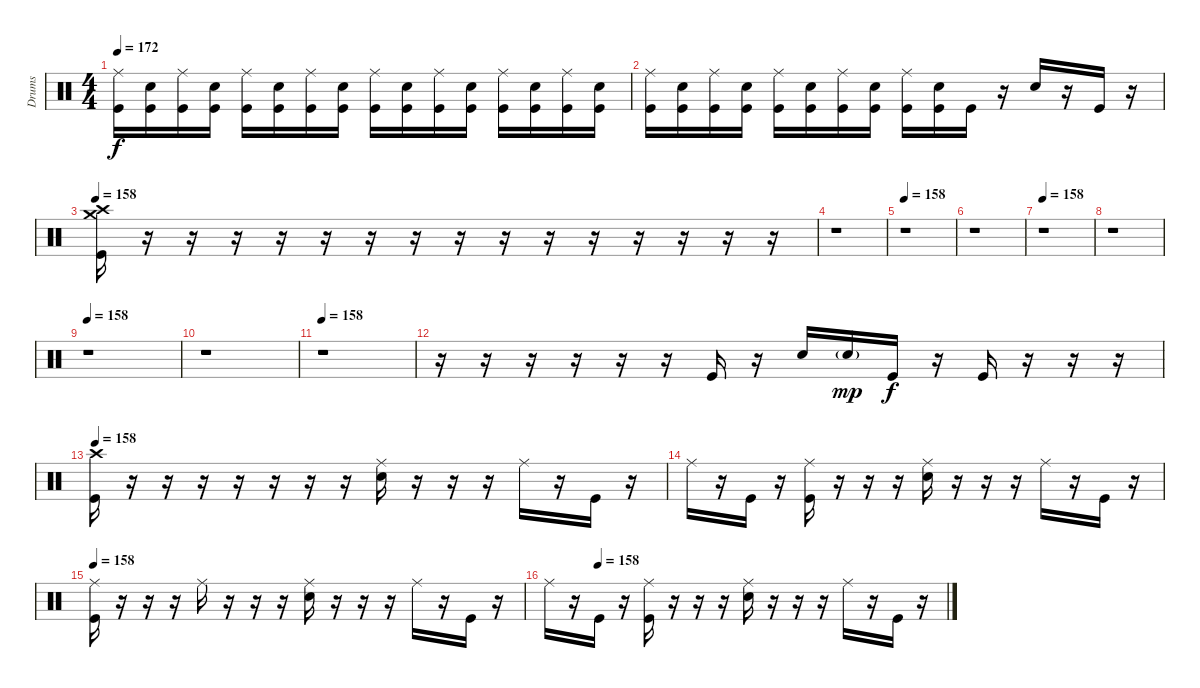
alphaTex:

\track ("Drums" "Drums") {instrument percussion}
\staff {score}
\articulation defaults
\ts (4 4)
\tempo 172
\clef neutral
\ks c
("Ride (middle)" "Kick (hit)").16{dy f} ("Electric Snare (hit)" "Kick (hit)").16 ("Ride (middle)" "Kick (hit)").16 ("Electric Snare (hit)" "Kick (hit)").16 ("Ride (middle)" "Kick (hit)").16 ("Electric Snare (hit)" "Kick (hit)").16 ("Ride (middle)" "Kick (hit)").16 ("Electric Snare (hit)" "Kick (hit)").16 ("Ride (middle)" "Kick (hit)").16 ("Electric Snare (hit)" "Kick (hit)").16 ("Ride (middle)" "Kick (hit)").16 ("Electric Snare (hit)" "Kick (hit)").16 ("Ride (middle)" "Kick (hit)").16 ("Electric Snare (hit)" "Kick (hit)").16 ("Ride (middle)" "Kick (hit)").16 ("Electric Snare (hit)" "Kick (hit)").16 |
("Ride (middle)" "Kick (hit)").16 ("Electric Snare (hit)" "Kick (hit)").16 ("Ride (middle)" "Kick (hit)").16 ("Electric Snare (hit)" "Kick (hit)").16 ("Ride (middle)" "Kick (hit)").16 ("Electric Snare (hit)" "Kick (hit)").16 ("Ride (middle)" "Kick (hit)").16 ("Electric Snare (hit)" "Kick (hit)").16 ("Ride (middle)" "Kick (hit)").16 ("Electric Snare (hit)" "Kick (hit)").16 "Kick (hit)".16 r.16 "Electric Snare (hit)".16 r.16 "Kick (hit)".16 r.16 |
\tempo 158
("Crash medium (hit)" "Crash high (hit)" "Kick (hit)").16 r.16 r.16 r.16 r.16 r.16 r.16 r.16 r.16 r.16 r.16 r.16 r.16 r.16 r.16 r.16 |
r.1 |
\tempo 158
r.1 |
r.1 |
\tempo 158
r.1 |
r.1 |
\tempo 158
r.1 |
r.1 |
\tempo 158
r.1 |
r.16 r.16 r.16 r.16 r.16 r.16 "Kick (hit)".16 r.16 "Electric Snare (hit)".16 "Electric Snare (hit)"{g}.16{dy mp} "Kick (hit)".16{dy f} r.16 "Kick (hit)".16 r.16 r.16 r.16 |
\tempo 158
("Kick (hit)" "Crash high (hit)").16 r.16 r.16 r.16 r.16 r.16 r.16 r.16 ("Electric Snare (hit)" "Ride (middle)").16 r.16 r.16 r.16 "Ride (middle)".16 r.16 "Kick (hit)".16 r.16 |
"Ride (middle)".16 r.16 "Kick (hit)".16 r.16 ("Kick (hit)" "Ride (middle)").16 r.16 r.16 r.16 ("Electric Snare (hit)" "Ride (middle)").16 r.16 r.16 r.16 "Ride (middle)".16 r.16 "Kick (hit)".16 r.16 |
\tempo 158
("Kick (hit)" "Ride (middle)").16 r.16 r.16 r.16 "Ride (middle)".16 r.16 r.16 r.16 ("Electric Snare (hit)" "Ride (middle)").16 r.16 r.16 r.16 "Ride (middle)".16 r.16 "Kick (hit)".16 r.16 |
\tempo (158 0.125)
"Ride (middle)".16 r.16 "Kick (hit)".16 r.16 ("Kick (hit)" "Ride (middle)").16 r.16 r.16 r.16 ("Electric Snare (hit)" "Ride (middle)").16 r.16 r.16 r.16 "Ride (middle)".16 r.16 "Kick (hit)".16 r.16
